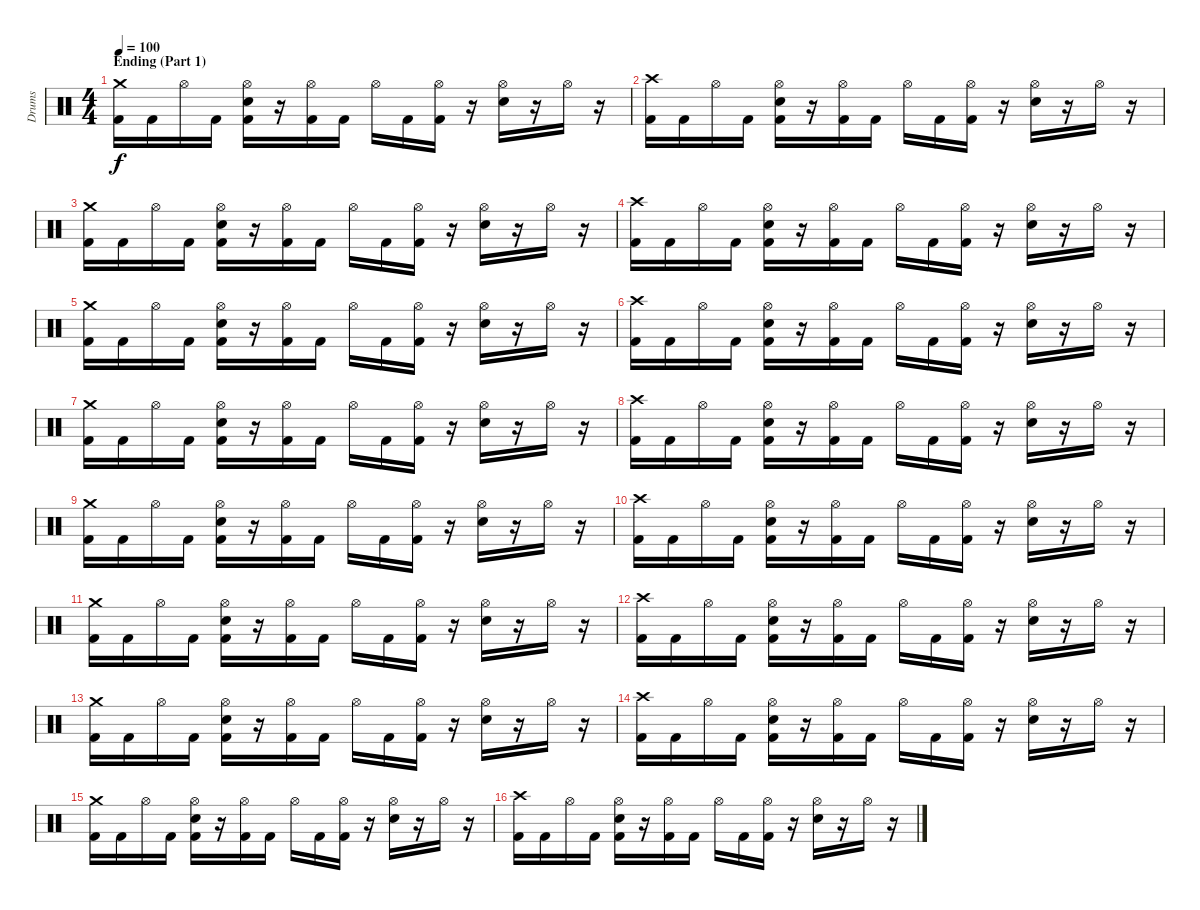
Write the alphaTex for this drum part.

\track ("Drums" "Drums") {instrument percussion}
\staff {score}
\articulation defaults
\ts (4 4)
\section ("" "Ending (Part 1)")
\tempo 100
\clef neutral
\ks c
("Crash medium (hit)" "Kick (hit) 2").16{dy f} "Kick (hit) 2".16 "Hi-Hat (open)".16 "Kick (hit) 2".16 ("Hi-Hat (open)" "Snare (hit) 2" "Kick (hit) 2").16 r.16 ("Hi-Hat (open)" "Kick (hit) 2").16 "Kick (hit) 2".16 "Hi-Hat (open)".16 "Kick (hit) 2".16 ("Hi-Hat (open)" "Kick (hit) 2").16 r.16 ("Hi-Hat (open)" "Snare (hit) 2").16 r.16 "Hi-Hat (open)".16 r.16 |
("Crash high (hit)" "Kick (hit) 2").16 "Kick (hit) 2".16 "Hi-Hat (open)".16 "Kick (hit) 2".16 ("Hi-Hat (open)" "Snare (hit) 2" "Kick (hit) 2").16 r.16 ("Hi-Hat (open)" "Kick (hit) 2").16 "Kick (hit) 2".16 "Hi-Hat (open)".16 "Kick (hit) 2".16 ("Hi-Hat (open)" "Kick (hit) 2").16 r.16 ("Hi-Hat (open)" "Snare (hit) 2").16 r.16 "Hi-Hat (open)".16 r.16 |
("Crash medium (hit)" "Kick (hit) 2").16 "Kick (hit) 2".16 "Hi-Hat (open)".16 "Kick (hit) 2".16 ("Hi-Hat (open)" "Snare (hit) 2" "Kick (hit) 2").16 r.16 ("Hi-Hat (open)" "Kick (hit) 2").16 "Kick (hit) 2".16 "Hi-Hat (open)".16 "Kick (hit) 2".16 ("Hi-Hat (open)" "Kick (hit) 2").16 r.16 ("Hi-Hat (open)" "Snare (hit) 2").16 r.16 "Hi-Hat (open)".16 r.16 |
("Crash high (hit)" "Kick (hit) 2").16 "Kick (hit) 2".16 "Hi-Hat (open)".16 "Kick (hit) 2".16 ("Hi-Hat (open)" "Snare (hit) 2" "Kick (hit) 2").16 r.16 ("Hi-Hat (open)" "Kick (hit) 2").16 "Kick (hit) 2".16 "Hi-Hat (open)".16 "Kick (hit) 2".16 ("Hi-Hat (open)" "Kick (hit) 2").16 r.16 ("Hi-Hat (open)" "Snare (hit) 2").16 r.16 "Hi-Hat (open)".16 r.16 |
("Crash medium (hit)" "Kick (hit) 2").16 "Kick (hit) 2".16 "Hi-Hat (open)".16 "Kick (hit) 2".16 ("Hi-Hat (open)" "Snare (hit) 2" "Kick (hit) 2").16 r.16 ("Hi-Hat (open)" "Kick (hit) 2").16 "Kick (hit) 2".16 "Hi-Hat (open)".16 "Kick (hit) 2".16 ("Hi-Hat (open)" "Kick (hit) 2").16 r.16 ("Hi-Hat (open)" "Snare (hit) 2").16 r.16 "Hi-Hat (open)".16 r.16 |
("Crash high (hit)" "Kick (hit) 2").16 "Kick (hit) 2".16 "Hi-Hat (open)".16 "Kick (hit) 2".16 ("Hi-Hat (open)" "Snare (hit) 2" "Kick (hit) 2").16 r.16 ("Hi-Hat (open)" "Kick (hit) 2").16 "Kick (hit) 2".16 "Hi-Hat (open)".16 "Kick (hit) 2".16 ("Hi-Hat (open)" "Kick (hit) 2").16 r.16 ("Hi-Hat (open)" "Snare (hit) 2").16 r.16 "Hi-Hat (open)".16 r.16 |
("Crash medium (hit)" "Kick (hit) 2").16 "Kick (hit) 2".16 "Hi-Hat (open)".16 "Kick (hit) 2".16 ("Hi-Hat (open)" "Snare (hit) 2" "Kick (hit) 2").16 r.16 ("Hi-Hat (open)" "Kick (hit) 2").16 "Kick (hit) 2".16 "Hi-Hat (open)".16 "Kick (hit) 2".16 ("Hi-Hat (open)" "Kick (hit) 2").16 r.16 ("Hi-Hat (open)" "Snare (hit) 2").16 r.16 "Hi-Hat (open)".16 r.16 |
("Crash high (hit)" "Kick (hit) 2").16 "Kick (hit) 2".16 "Hi-Hat (open)".16 "Kick (hit) 2".16 ("Hi-Hat (open)" "Snare (hit) 2" "Kick (hit) 2").16 r.16 ("Hi-Hat (open)" "Kick (hit) 2").16 "Kick (hit) 2".16 "Hi-Hat (open)".16 "Kick (hit) 2".16 ("Hi-Hat (open)" "Kick (hit) 2").16 r.16 ("Hi-Hat (open)" "Snare (hit) 2").16 r.16 "Hi-Hat (open)".16 r.16 |
("Crash medium (hit)" "Kick (hit) 2").16 "Kick (hit) 2".16 "Hi-Hat (open)".16 "Kick (hit) 2".16 ("Hi-Hat (open)" "Snare (hit) 2" "Kick (hit) 2").16 r.16 ("Hi-Hat (open)" "Kick (hit) 2").16 "Kick (hit) 2".16 "Hi-Hat (open)".16 "Kick (hit) 2".16 ("Hi-Hat (open)" "Kick (hit) 2").16 r.16 ("Hi-Hat (open)" "Snare (hit) 2").16 r.16 "Hi-Hat (open)".16 r.16 |
("Crash high (hit)" "Kick (hit) 2").16 "Kick (hit) 2".16 "Hi-Hat (open)".16 "Kick (hit) 2".16 ("Hi-Hat (open)" "Snare (hit) 2" "Kick (hit) 2").16 r.16 ("Hi-Hat (open)" "Kick (hit) 2").16 "Kick (hit) 2".16 "Hi-Hat (open)".16 "Kick (hit) 2".16 ("Hi-Hat (open)" "Kick (hit) 2").16 r.16 ("Hi-Hat (open)" "Snare (hit) 2").16 r.16 "Hi-Hat (open)".16 r.16 |
("Crash medium (hit)" "Kick (hit) 2").16 "Kick (hit) 2".16 "Hi-Hat (open)".16 "Kick (hit) 2".16 ("Hi-Hat (open)" "Snare (hit) 2" "Kick (hit) 2").16 r.16 ("Hi-Hat (open)" "Kick (hit) 2").16 "Kick (hit) 2".16 "Hi-Hat (open)".16 "Kick (hit) 2".16 ("Hi-Hat (open)" "Kick (hit) 2").16 r.16 ("Hi-Hat (open)" "Snare (hit) 2").16 r.16 "Hi-Hat (open)".16 r.16 |
("Crash high (hit)" "Kick (hit) 2").16 "Kick (hit) 2".16 "Hi-Hat (open)".16 "Kick (hit) 2".16 ("Hi-Hat (open)" "Snare (hit) 2" "Kick (hit) 2").16 r.16 ("Hi-Hat (open)" "Kick (hit) 2").16 "Kick (hit) 2".16 "Hi-Hat (open)".16 "Kick (hit) 2".16 ("Hi-Hat (open)" "Kick (hit) 2").16 r.16 ("Hi-Hat (open)" "Snare (hit) 2").16 r.16 "Hi-Hat (open)".16 r.16 |
("Crash medium (hit)" "Kick (hit) 2").16 "Kick (hit) 2".16 "Hi-Hat (open)".16 "Kick (hit) 2".16 ("Hi-Hat (open)" "Snare (hit) 2" "Kick (hit) 2").16 r.16 ("Hi-Hat (open)" "Kick (hit) 2").16 "Kick (hit) 2".16 "Hi-Hat (open)".16 "Kick (hit) 2".16 ("Hi-Hat (open)" "Kick (hit) 2").16 r.16 ("Hi-Hat (open)" "Snare (hit) 2").16 r.16 "Hi-Hat (open)".16 r.16 |
("Crash high (hit)" "Kick (hit) 2").16 "Kick (hit) 2".16 "Hi-Hat (open)".16 "Kick (hit) 2".16 ("Hi-Hat (open)" "Snare (hit) 2" "Kick (hit) 2").16 r.16 ("Hi-Hat (open)" "Kick (hit) 2").16 "Kick (hit) 2".16 "Hi-Hat (open)".16 "Kick (hit) 2".16 ("Hi-Hat (open)" "Kick (hit) 2").16 r.16 ("Hi-Hat (open)" "Snare (hit) 2").16 r.16 "Hi-Hat (open)".16 r.16 |
("Crash medium (hit)" "Kick (hit) 2").16 "Kick (hit) 2".16 "Hi-Hat (open)".16 "Kick (hit) 2".16 ("Hi-Hat (open)" "Snare (hit) 2" "Kick (hit) 2").16 r.16 ("Hi-Hat (open)" "Kick (hit) 2").16 "Kick (hit) 2".16 "Hi-Hat (open)".16 "Kick (hit) 2".16 ("Hi-Hat (open)" "Kick (hit) 2").16 r.16 ("Hi-Hat (open)" "Snare (hit) 2").16 r.16 "Hi-Hat (open)".16 r.16 |
("Crash high (hit)" "Kick (hit) 2").16 "Kick (hit) 2".16 "Hi-Hat (open)".16 "Kick (hit) 2".16 ("Hi-Hat (open)" "Snare (hit) 2" "Kick (hit) 2").16 r.16 ("Hi-Hat (open)" "Kick (hit) 2").16 "Kick (hit) 2".16 "Hi-Hat (open)".16 "Kick (hit) 2".16 ("Hi-Hat (open)" "Kick (hit) 2").16 r.16 ("Hi-Hat (open)" "Snare (hit) 2").16 r.16 "Hi-Hat (open)".16 r.16
